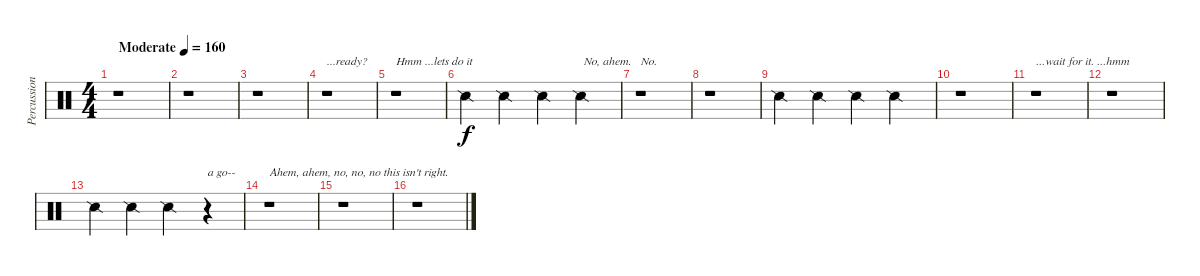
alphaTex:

\track ("Percussion" "Percussion") {instrument percussion}
\staff {score}
\articulation defaults
\ts (4 4)
\tempo (160 "Moderate")
\clef neutral
\ks c
r.1{dy f} |
r.1 |
r.1 |
r.1{txt "...ready?"} |
r.1{txt "Hmm ...lets do it"} |
"Snare (side stick) 2".4 "Snare (side stick) 2".4 "Snare (side stick) 2".4 "Snare (side stick) 2".4{txt "No, ahem."} |
r.1{txt "No."} |
r.1 |
"Snare (side stick) 2".4 "Snare (side stick) 2".4 "Snare (side stick) 2".4 "Snare (side stick) 2".4 |
r.1 |
r.1{txt "...wait for it. ...hmm"} |
r.1 |
"Snare (side stick) 2".4 "Snare (side stick) 2".4 "Snare (side stick) 2".4 r.4{txt "a go--"} |
r.1{txt "Ahem, ahem, no, no, no this isn't right."} |
r.1 |
r.1
